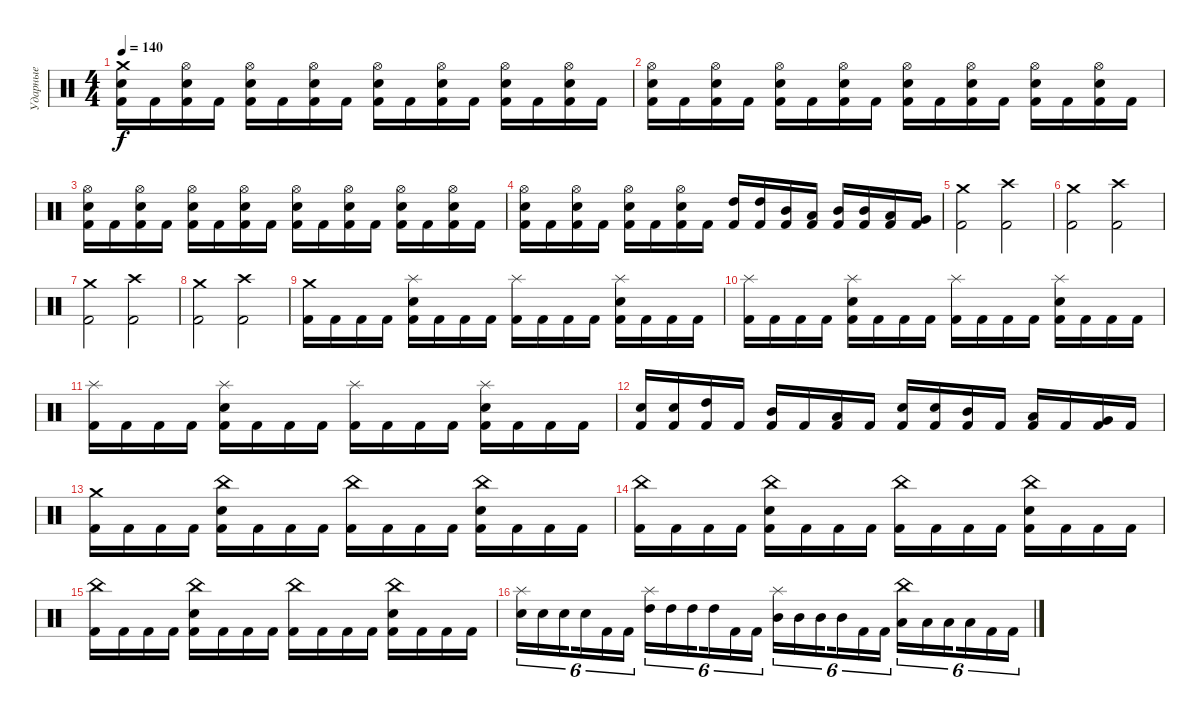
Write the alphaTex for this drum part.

\track ("Ударные" "Ударные") {instrument percussion}
\staff {score}
\articulation defaults
\ts (4 4)
\tempo 140
\clef neutral
\ks c
("Crash medium (hit)" "Electric Snare (hit)" "Kick (hit) 2").16{dy f} "Kick (hit) 2".16 ("Hi-Hat (open)" "Electric Snare (hit)" "Kick (hit) 2").16 "Kick (hit) 2".16 ("Hi-Hat (open)" "Electric Snare (hit)" "Kick (hit) 2").16 "Kick (hit) 2".16 ("Hi-Hat (open)" "Electric Snare (hit)" "Kick (hit) 2").16 "Kick (hit) 2".16 ("Hi-Hat (open)" "Electric Snare (hit)" "Kick (hit) 2").16 "Kick (hit) 2".16 ("Hi-Hat (open)" "Electric Snare (hit)" "Kick (hit) 2").16 "Kick (hit) 2".16 ("Hi-Hat (open)" "Electric Snare (hit)" "Kick (hit) 2").16 "Kick (hit) 2".16 ("Hi-Hat (open)" "Electric Snare (hit)" "Kick (hit) 2").16 "Kick (hit) 2".16 |
("Hi-Hat (open)" "Electric Snare (hit)" "Kick (hit) 2").16 "Kick (hit) 2".16 ("Hi-Hat (open)" "Electric Snare (hit)" "Kick (hit) 2").16 "Kick (hit) 2".16 ("Hi-Hat (open)" "Electric Snare (hit)" "Kick (hit) 2").16 "Kick (hit) 2".16 ("Hi-Hat (open)" "Electric Snare (hit)" "Kick (hit) 2").16 "Kick (hit) 2".16 ("Hi-Hat (open)" "Electric Snare (hit)" "Kick (hit) 2").16 "Kick (hit) 2".16 ("Hi-Hat (open)" "Electric Snare (hit)" "Kick (hit) 2").16 "Kick (hit) 2".16 ("Hi-Hat (open)" "Electric Snare (hit)" "Kick (hit) 2").16 "Kick (hit) 2".16 ("Hi-Hat (open)" "Electric Snare (hit)" "Kick (hit) 2").16 "Kick (hit) 2".16 |
("Hi-Hat (open)" "Electric Snare (hit)" "Kick (hit) 2").16 "Kick (hit) 2".16 ("Hi-Hat (open)" "Electric Snare (hit)" "Kick (hit) 2").16 "Kick (hit) 2".16 ("Hi-Hat (open)" "Electric Snare (hit)" "Kick (hit) 2").16 "Kick (hit) 2".16 ("Hi-Hat (open)" "Electric Snare (hit)" "Kick (hit) 2").16 "Kick (hit) 2".16 ("Hi-Hat (open)" "Electric Snare (hit)" "Kick (hit) 2").16 "Kick (hit) 2".16 ("Hi-Hat (open)" "Electric Snare (hit)" "Kick (hit) 2").16 "Kick (hit) 2".16 ("Hi-Hat (open)" "Electric Snare (hit)" "Kick (hit) 2").16 "Kick (hit) 2".16 ("Hi-Hat (open)" "Electric Snare (hit)" "Kick (hit) 2").16 "Kick (hit) 2".16 |
("Hi-Hat (open)" "Electric Snare (hit)" "Kick (hit) 2").16 "Kick (hit) 2".16 ("Hi-Hat (open)" "Electric Snare (hit)" "Kick (hit) 2").16 "Kick (hit) 2".16 ("Hi-Hat (open)" "Electric Snare (hit)" "Kick (hit) 2").16 "Kick (hit) 2".16 ("Hi-Hat (open)" "Electric Snare (hit)" "Kick (hit) 2").16 "Kick (hit) 2".16 ("High Tom (hit)" "Kick (hit) 2").16 ("High Tom (hit)" "Kick (hit) 2").16 ("Mid Tom (hit)" "Kick (hit) 2").16 ("Low Tom (hit)" "Kick (hit) 2").16 ("Mid Tom (hit)" "Kick (hit) 2").16 ("Mid Tom (hit)" "Kick (hit) 2").16 ("Low Tom (hit)" "Kick (hit) 2").16 ("Very Low Tom (hit)" "Kick (hit) 2").16 |
("Crash medium (hit)" "Kick (hit) 2").2 ("Crash high (hit)" "Kick (hit) 2").2 |
("Crash medium (hit)" "Kick (hit) 2").2 ("Crash high (hit)" "Kick (hit) 2").2 |
("Crash medium (hit)" "Kick (hit) 2").2 ("Crash high (hit)" "Kick (hit) 2").2 |
("Crash medium (hit)" "Kick (hit) 2").2 ("Crash high (hit)" "Kick (hit) 2").2 |
("Crash medium (hit)" "Kick (hit) 2").16 "Kick (hit) 2".16 "Kick (hit) 2".16 "Kick (hit) 2".16 ("Splash (hit)" "Electric Snare (hit)" "Kick (hit) 2").16 "Kick (hit) 2".16 "Kick (hit) 2".16 "Kick (hit) 2".16 ("Splash (hit)" "Kick (hit) 2").16 "Kick (hit) 2".16 "Kick (hit) 2".16 "Kick (hit) 2".16 ("Splash (hit)" "Electric Snare (hit)" "Kick (hit) 2").16 "Kick (hit) 2".16 "Kick (hit) 2".16 "Kick (hit) 2".16 |
("Splash (hit)" "Kick (hit) 2").16 "Kick (hit) 2".16 "Kick (hit) 2".16 "Kick (hit) 2".16 ("Splash (hit)" "Electric Snare (hit)" "Kick (hit) 2").16 "Kick (hit) 2".16 "Kick (hit) 2".16 "Kick (hit) 2".16 ("Splash (hit)" "Kick (hit) 2").16 "Kick (hit) 2".16 "Kick (hit) 2".16 "Kick (hit) 2".16 ("Splash (hit)" "Electric Snare (hit)" "Kick (hit) 2").16 "Kick (hit) 2".16 "Kick (hit) 2".16 "Kick (hit) 2".16 |
("Splash (hit)" "Kick (hit) 2").16 "Kick (hit) 2".16 "Kick (hit) 2".16 "Kick (hit) 2".16 ("Splash (hit)" "Electric Snare (hit)" "Kick (hit) 2").16 "Kick (hit) 2".16 "Kick (hit) 2".16 "Kick (hit) 2".16 ("Splash (hit)" "Kick (hit) 2").16 "Kick (hit) 2".16 "Kick (hit) 2".16 "Kick (hit) 2".16 ("Splash (hit)" "Electric Snare (hit)" "Kick (hit) 2").16 "Kick (hit) 2".16 "Kick (hit) 2".16 "Kick (hit) 2".16 |
("Electric Snare (hit)" "Kick (hit) 2").16 ("Electric Snare (hit)" "Kick (hit) 2").16 ("High Tom (hit)" "Kick (hit) 2").16 "Kick (hit) 2".16 ("Mid Tom (hit)" "Kick (hit) 2").16 "Kick (hit) 2".16 ("Low Tom (hit)" "Kick (hit) 2").16 "Kick (hit) 2".16 ("Electric Snare (hit)" "Kick (hit) 2").16 ("Electric Snare (hit)" "Kick (hit) 2").16 ("Mid Tom (hit)" "Kick (hit) 2").16 "Kick (hit) 2".16 ("Low Tom (hit)" "Kick (hit) 2").16 "Kick (hit) 2".16 ("Very Low Tom (hit)" "Kick (hit) 2").16 "Kick (hit) 2".16 |
("Crash medium (hit)" "Kick (hit) 2").16 "Kick (hit) 2".16 "Kick (hit) 2".16 "Kick (hit) 2".16 ("China (hit)" "Electric Snare (hit)" "Kick (hit) 2").16 "Kick (hit) 2".16 "Kick (hit) 2".16 "Kick (hit) 2".16 ("China (hit)" "Kick (hit) 2").16 "Kick (hit) 2".16 "Kick (hit) 2".16 "Kick (hit) 2".16 ("China (hit)" "Electric Snare (hit)" "Kick (hit) 2").16 "Kick (hit) 2".16 "Kick (hit) 2".16 "Kick (hit) 2".16 |
("China (hit)" "Kick (hit) 2").16 "Kick (hit) 2".16 "Kick (hit) 2".16 "Kick (hit) 2".16 ("China (hit)" "Electric Snare (hit)" "Kick (hit) 2").16 "Kick (hit) 2".16 "Kick (hit) 2".16 "Kick (hit) 2".16 ("China (hit)" "Kick (hit) 2").16 "Kick (hit) 2".16 "Kick (hit) 2".16 "Kick (hit) 2".16 ("China (hit)" "Electric Snare (hit)" "Kick (hit) 2").16 "Kick (hit) 2".16 "Kick (hit) 2".16 "Kick (hit) 2".16 |
("China (hit)" "Kick (hit) 2").16 "Kick (hit) 2".16 "Kick (hit) 2".16 "Kick (hit) 2".16 ("China (hit)" "Electric Snare (hit)" "Kick (hit) 2").16 "Kick (hit) 2".16 "Kick (hit) 2".16 "Kick (hit) 2".16 ("China (hit)" "Kick (hit) 2").16 "Kick (hit) 2".16 "Kick (hit) 2".16 "Kick (hit) 2".16 ("China (hit)" "Electric Snare (hit)" "Kick (hit) 2").16 "Kick (hit) 2".16 "Kick (hit) 2".16 "Kick (hit) 2".16 |
("Electric Snare (hit)" "Splash (hit)").16{tu (6 4)} "Electric Snare (hit)".16{tu (6 4)} "Electric Snare (hit)".16{tu (6 4) beam splitsecondary} "Electric Snare (hit)".16{tu (6 4)} "Kick (hit) 2".16{tu (6 4)} "Kick (hit) 2".16{tu (6 4)} ("High Tom (hit)" "Splash (hit)").16{tu (6 4)} "High Tom (hit)".16{tu (6 4)} "High Tom (hit)".16{tu (6 4) beam splitsecondary} "High Tom (hit)".16{tu (6 4)} "Kick (hit) 2".16{tu (6 4)} "Kick (hit) 2".16{tu (6 4)} ("Mid Tom (hit)" "Splash (hit)").16{tu (6 4)} "Mid Tom (hit)".16{tu (6 4)} "Mid Tom (hit)".16{tu (6 4) beam splitsecondary} "Mid Tom (hit)".16{tu (6 4)} "Kick (hit) 2".16{tu (6 4)} "Kick (hit) 2".16{tu (6 4)} ("Low Tom (hit)" "China (hit)").16{tu (6 4)} "Low Tom (hit)".16{tu (6 4)} "Low Tom (hit)".16{tu (6 4) beam splitsecondary} "Low Tom (hit)".16{tu (6 4)} "Kick (hit) 2".16{tu (6 4)} "Kick (hit) 2".16{tu (6 4)}
